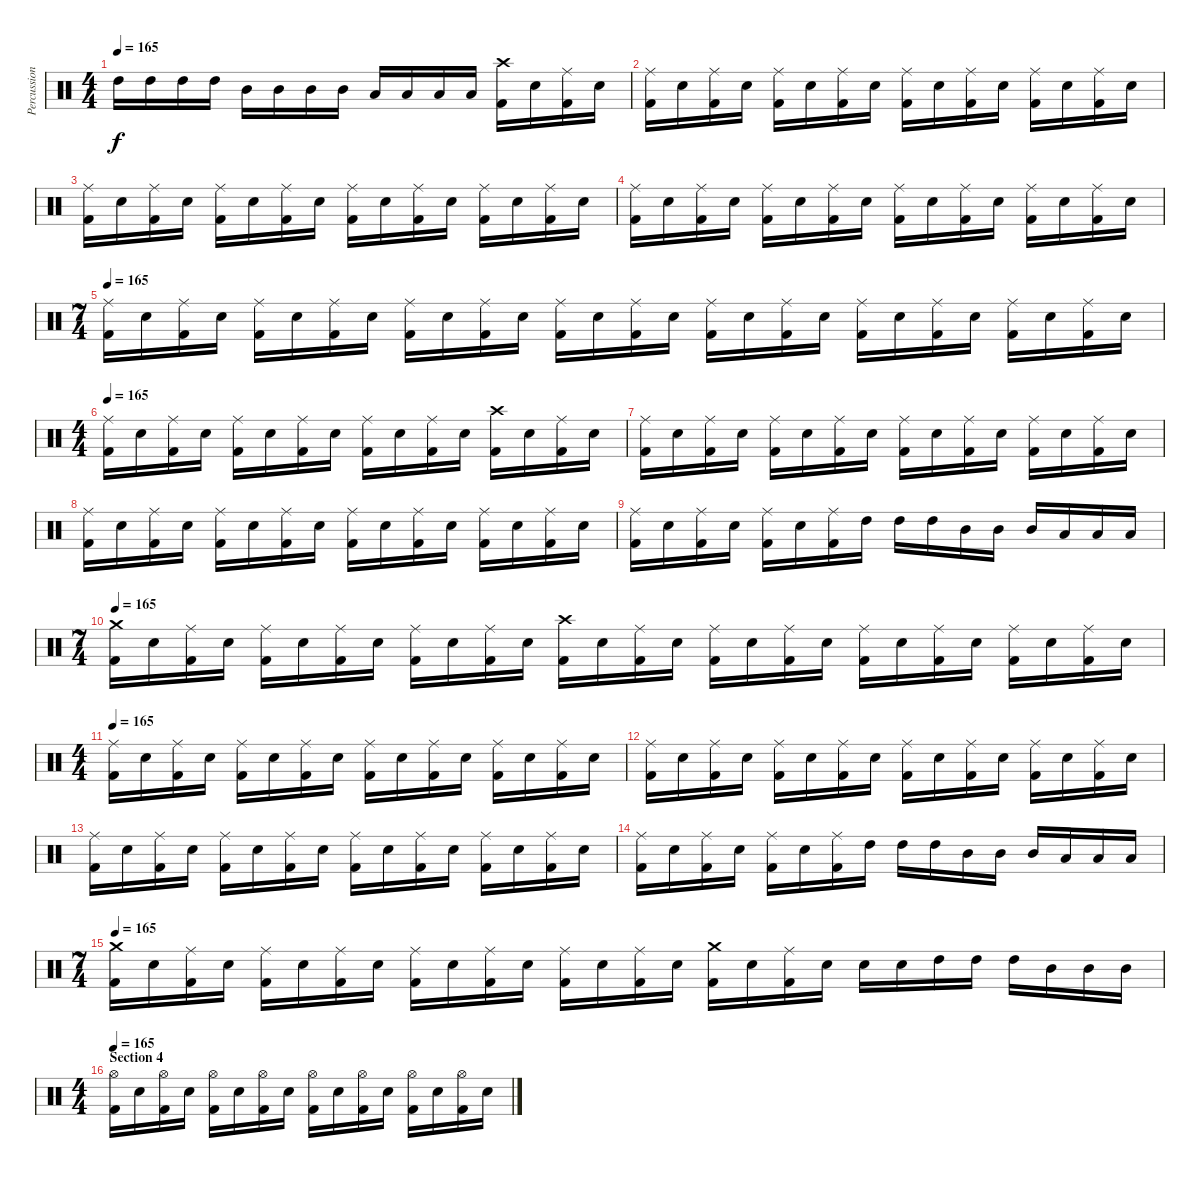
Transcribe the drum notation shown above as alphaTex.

\track ("Percussion" "Percussion") {instrument percussion}
\staff {score}
\articulation defaults
\ts (4 4)
\tempo 165
\clef neutral
\ks c "High Tom (hit)".16{dy f} "High Tom (hit)".16 "High Tom (hit)".16 "High Tom (hit)".16 "Mid Tom (hit)".16 "Mid Tom (hit)".16 "Mid Tom (hit)".16 "Mid Tom (hit)".16 "Low Tom (hit)".16 "Low Tom (hit)".16 "Low Tom (hit)".16 "Low Tom (hit)".16
("Crash high (hit)" "Kick (hit) 2").16 "Electric Snare (hit)".16 ("Ride (middle)" "Kick (hit) 2").16 "Electric Snare (hit)".16 |
("Ride (middle)" "Kick (hit) 2").16 "Electric Snare (hit)".16 ("Ride (middle)" "Kick (hit) 2").16 "Electric Snare (hit)".16 ("Ride (middle)" "Kick (hit) 2").16 "Electric Snare (hit)".16 ("Ride (middle)" "Kick (hit) 2").16 "Electric Snare (hit)".16 ("Ride (middle)" "Kick (hit) 2").16 "Electric Snare (hit)".16 ("Ride (middle)" "Kick (hit) 2").16 "Electric Snare (hit)".16 ("Ride (middle)" "Kick (hit) 2").16 "Electric Snare (hit)".16 ("Ride (middle)" "Kick (hit) 2").16 "Electric Snare (hit)".16 |
("Ride (middle)" "Kick (hit) 2").16 "Electric Snare (hit)".16 ("Ride (middle)" "Kick (hit) 2").16 "Electric Snare (hit)".16 ("Ride (middle)" "Kick (hit) 2").16 "Electric Snare (hit)".16 ("Ride (middle)" "Kick (hit) 2").16 "Electric Snare (hit)".16 ("Ride (middle)" "Kick (hit) 2").16 "Electric Snare (hit)".16 ("Ride (middle)" "Kick (hit) 2").16 "Electric Snare (hit)".16 ("Ride (middle)" "Kick (hit) 2").16 "Electric Snare (hit)".16 ("Ride (middle)" "Kick (hit) 2").16 "Electric Snare (hit)".16 |
("Ride (middle)" "Kick (hit) 2").16 "Electric Snare (hit)".16 ("Ride (middle)" "Kick (hit) 2").16 "Electric Snare (hit)".16 ("Ride (middle)" "Kick (hit) 2").16 "Electric Snare (hit)".16 ("Ride (middle)" "Kick (hit) 2").16 "Electric Snare (hit)".16 ("Ride (middle)" "Kick (hit) 2").16 "Electric Snare (hit)".16 ("Ride (middle)" "Kick (hit) 2").16 "Electric Snare (hit)".16 ("Ride (middle)" "Kick (hit) 2").16 "Electric Snare (hit)".16 ("Ride (middle)" "Kick (hit) 2").16 "Electric Snare (hit)".16 |
\ts (7 4)
\tempo 165
("Ride (middle)" "Kick (hit) 2").16 "Electric Snare (hit)".16 ("Ride (middle)" "Kick (hit) 2").16 "Electric Snare (hit)".16 ("Ride (middle)" "Kick (hit) 2").16 "Electric Snare (hit)".16 ("Ride (middle)" "Kick (hit) 2").16 "Electric Snare (hit)".16 ("Ride (middle)" "Kick (hit) 2").16 "Electric Snare (hit)".16 ("Ride (middle)" "Kick (hit) 2").16 "Electric Snare (hit)".16 ("Ride (middle)" "Kick (hit) 2").16 "Electric Snare (hit)".16 ("Ride (middle)" "Kick (hit) 2").16 "Electric Snare (hit)".16 ("Ride (middle)" "Kick (hit) 2").16 "Electric Snare (hit)".16 ("Ride (middle)" "Kick (hit) 2").16 "Electric Snare (hit)".16 ("Ride (middle)" "Kick (hit) 2").16 "Electric Snare (hit)".16 ("Ride (middle)" "Kick (hit) 2").16 "Electric Snare (hit)".16 ("Ride (middle)" "Kick (hit) 2").16 "Electric Snare (hit)".16 ("Ride (middle)" "Kick (hit) 2").16 "Electric Snare (hit)".16 |
\ts (4 4)
\tempo 165
("Ride (middle)" "Kick (hit) 2").16 "Electric Snare (hit)".16 ("Ride (middle)" "Kick (hit) 2").16 "Electric Snare (hit)".16 ("Ride (middle)" "Kick (hit) 2").16 "Electric Snare (hit)".16 ("Ride (middle)" "Kick (hit) 2").16 "Electric Snare (hit)".16 ("Ride (middle)" "Kick (hit) 2").16 "Electric Snare (hit)".16 ("Ride (middle)" "Kick (hit) 2").16 "Electric Snare (hit)".16 ("Crash high (hit)" "Kick (hit) 2").16 "Electric Snare (hit)".16 ("Ride (middle)" "Kick (hit) 2").16 "Electric Snare (hit)".16 |
("Ride (middle)" "Kick (hit) 2").16 "Electric Snare (hit)".16 ("Ride (middle)" "Kick (hit) 2").16 "Electric Snare (hit)".16 ("Ride (middle)" "Kick (hit) 2").16 "Electric Snare (hit)".16 ("Ride (middle)" "Kick (hit) 2").16 "Electric Snare (hit)".16 ("Ride (middle)" "Kick (hit) 2").16 "Electric Snare (hit)".16 ("Ride (middle)" "Kick (hit) 2").16 "Electric Snare (hit)".16 ("Ride (middle)" "Kick (hit) 2").16 "Electric Snare (hit)".16 ("Ride (middle)" "Kick (hit) 2").16 "Electric Snare (hit)".16 |
("Ride (middle)" "Kick (hit) 2").16 "Electric Snare (hit)".16 ("Ride (middle)" "Kick (hit) 2").16 "Electric Snare (hit)".16 ("Ride (middle)" "Kick (hit) 2").16 "Electric Snare (hit)".16 ("Ride (middle)" "Kick (hit) 2").16 "Electric Snare (hit)".16 ("Ride (middle)" "Kick (hit) 2").16 "Electric Snare (hit)".16 ("Ride (middle)" "Kick (hit) 2").16 "Electric Snare (hit)".16 ("Ride (middle)" "Kick (hit) 2").16 "Electric Snare (hit)".16 ("Ride (middle)" "Kick (hit) 2").16 "Electric Snare (hit)".16 |
("Ride (middle)" "Kick (hit) 2").16 "Electric Snare (hit)".16 ("Ride (middle)" "Kick (hit) 2").16 "Electric Snare (hit)".16 ("Ride (middle)" "Kick (hit) 2").16 "Electric Snare (hit)".16 ("Ride (middle)" "Kick (hit) 2").16 "High Tom (hit)".16 "High Tom (hit)".16 "High Tom (hit)".16 "Mid Tom (hit)".16 "Mid Tom (hit)".16 "Mid Tom (hit)".16 "Low Tom (hit)".16 "Low Tom (hit)".16 "Low Tom (hit)".16 |
\ts (7 4)
\tempo 165
("Crash medium (hit)" "Kick (hit) 2").16 "Electric Snare (hit)".16 ("Ride (middle)" "Kick (hit) 2").16 "Electric Snare (hit)".16 ("Ride (middle)" "Kick (hit) 2").16 "Electric Snare (hit)".16 ("Ride (middle)" "Kick (hit) 2").16 "Electric Snare (hit)".16 ("Ride (middle)" "Kick (hit) 2").16 "Electric Snare (hit)".16 ("Ride (middle)" "Kick (hit) 2").16 "Electric Snare (hit)".16 ("Crash high (hit)" "Kick (hit) 2").16 "Electric Snare (hit)".16 ("Ride (middle)" "Kick (hit) 2").16 "Electric Snare (hit)".16 ("Ride (middle)" "Kick (hit) 2").16 "Electric Snare (hit)".16 ("Ride (middle)" "Kick (hit) 2").16 "Electric Snare (hit)".16 ("Ride (middle)" "Kick (hit) 2").16 "Electric Snare (hit)".16 ("Ride (middle)" "Kick (hit) 2").16 "Electric Snare (hit)".16 ("Ride (middle)" "Kick (hit) 2").16 "Electric Snare (hit)".16 ("Ride (middle)" "Kick (hit) 2").16 "Electric Snare (hit)".16 |
\ts (4 4)
\tempo 165
("Ride (middle)" "Kick (hit) 2").16 "Electric Snare (hit)".16 ("Ride (middle)" "Kick (hit) 2").16 "Electric Snare (hit)".16 ("Ride (middle)" "Kick (hit) 2").16 "Electric Snare (hit)".16 ("Ride (middle)" "Kick (hit) 2").16 "Electric Snare (hit)".16 ("Ride (middle)" "Kick (hit) 2").16 "Electric Snare (hit)".16 ("Ride (middle)" "Kick (hit) 2").16 "Electric Snare (hit)".16 ("Ride (middle)" "Kick (hit) 2").16 "Electric Snare (hit)".16 ("Ride (middle)" "Kick (hit) 2").16 "Electric Snare (hit)".16 |
("Ride (middle)" "Kick (hit) 2").16 "Electric Snare (hit)".16 ("Ride (middle)" "Kick (hit) 2").16 "Electric Snare (hit)".16 ("Ride (middle)" "Kick (hit) 2").16 "Electric Snare (hit)".16 ("Ride (middle)" "Kick (hit) 2").16 "Electric Snare (hit)".16 ("Ride (middle)" "Kick (hit) 2").16 "Electric Snare (hit)".16 ("Ride (middle)" "Kick (hit) 2").16 "Electric Snare (hit)".16 ("Ride (middle)" "Kick (hit) 2").16 "Electric Snare (hit)".16 ("Ride (middle)" "Kick (hit) 2").16 "Electric Snare (hit)".16 |
("Ride (middle)" "Kick (hit) 2").16 "Electric Snare (hit)".16 ("Ride (middle)" "Kick (hit) 2").16 "Electric Snare (hit)".16 ("Ride (middle)" "Kick (hit) 2").16 "Electric Snare (hit)".16 ("Ride (middle)" "Kick (hit) 2").16 "Electric Snare (hit)".16 ("Ride (middle)" "Kick (hit) 2").16 "Electric Snare (hit)".16 ("Ride (middle)" "Kick (hit) 2").16 "Electric Snare (hit)".16 ("Ride (middle)" "Kick (hit) 2").16 "Electric Snare (hit)".16 ("Ride (middle)" "Kick (hit) 2").16 "Electric Snare (hit)".16 |
("Ride (middle)" "Kick (hit) 2").16 "Electric Snare (hit)".16 ("Ride (middle)" "Kick (hit) 2").16 "Electric Snare (hit)".16 ("Ride (middle)" "Kick (hit) 2").16 "Electric Snare (hit)".16 ("Ride (middle)" "Kick (hit) 2").16 "High Tom (hit)".16 "High Tom (hit)".16 "High Tom (hit)".16 "Mid Tom (hit)".16 "Mid Tom (hit)".16 "Mid Tom (hit)".16 "Low Tom (hit)".16 "Low Tom (hit)".16 "Low Tom (hit)".16 |
\ts (7 4)
\tempo 165
("Crash medium (hit)" "Kick (hit) 2").16 "Electric Snare (hit)".16 ("Ride (middle)" "Kick (hit) 2").16 "Electric Snare (hit)".16 ("Ride (middle)" "Kick (hit) 2").16 "Electric Snare (hit)".16 ("Ride (middle)" "Kick (hit) 2").16 "Electric Snare (hit)".16 ("Ride (middle)" "Kick (hit) 2").16 "Electric Snare (hit)".16 ("Ride (middle)" "Kick (hit) 2").16 "Electric Snare (hit)".16 ("Ride (middle)" "Kick (hit) 2").16 "Electric Snare (hit)".16 ("Ride (middle)" "Kick (hit) 2").16 "Electric Snare (hit)".16 ("Crash medium (hit)" "Kick (hit) 2").16 "Electric Snare (hit)".16 ("Ride (middle)" "Kick (hit) 2").16 "Electric Snare (hit)".16 "Electric Snare (hit)".16 "Electric Snare (hit)".16 "High Tom (hit)".16 "High Tom (hit)".16 "High Tom (hit)".16 "Mid Tom (hit)".16 "Mid Tom (hit)".16 "Mid Tom (hit)".16 |
\ts (4 4)
\section ("" "Section 4")
\tempo 165
("Hi-Hat (open)" "Kick (hit) 2").16 "Electric Snare (hit)".16 ("Hi-Hat (open)" "Kick (hit) 2").16 "Electric Snare (hit)".16 ("Hi-Hat (open)" "Kick (hit) 2").16 "Electric Snare (hit)".16 ("Hi-Hat (open)" "Kick (hit) 2").16 "Electric Snare (hit)".16 ("Hi-Hat (open)" "Kick (hit) 2").16 "Electric Snare (hit)".16 ("Hi-Hat (open)" "Kick (hit) 2").16 "Electric Snare (hit)".16 ("Hi-Hat (open)" "Kick (hit) 2").16 "Electric Snare (hit)".16 ("Hi-Hat (open)" "Kick (hit) 2").16 "Electric Snare (hit)".16
